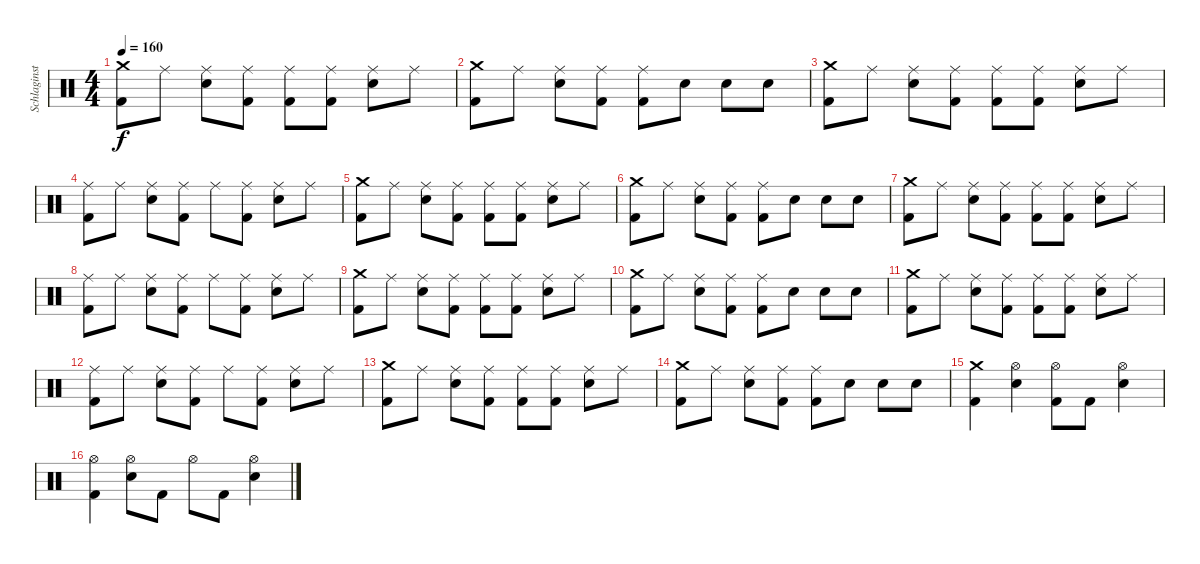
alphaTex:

\track ("Schlaginstrumente - Auswahl" "Schlaginst") {instrument percussion}
\staff {score}
\articulation defaults
\ts (4 4)
\tempo 160
\clef neutral
\ks c
("Crash medium (hit)" "Kick (hit) 2").8{dy f} "Ride (middle)".8 ("Ride (middle)" "Electric Snare (hit)").8 ("Ride (middle)" "Kick (hit) 2").8 ("Ride (middle)" "Kick (hit) 2").8 ("Ride (middle)" "Kick (hit) 2").8 ("Ride (middle)" "Electric Snare (hit)").8 "Ride (middle)".8 |
("Crash medium (hit)" "Kick (hit) 2").8 "Ride (middle)".8 ("Ride (middle)" "Electric Snare (hit)").8 ("Ride (middle)" "Kick (hit) 2").8 ("Ride (middle)" "Kick (hit) 2").8 "Electric Snare (hit)".8 "Electric Snare (hit)".8 "Electric Snare (hit)".8 |
("Crash medium (hit)" "Kick (hit) 2").8 "Ride (middle)".8 ("Ride (middle)" "Electric Snare (hit)").8 ("Ride (middle)" "Kick (hit) 2").8 ("Ride (middle)" "Kick (hit) 2").8 ("Ride (middle)" "Kick (hit) 2").8 ("Ride (middle)" "Electric Snare (hit)").8 "Ride (middle)".8 |
("Ride (middle)" "Kick (hit) 2").8 "Ride (middle)".8 ("Ride (middle)" "Electric Snare (hit)").8 ("Ride (middle)" "Kick (hit) 2").8 "Ride (middle)".8 ("Ride (middle)" "Kick (hit) 2").8 ("Ride (middle)" "Electric Snare (hit)").8 "Ride (middle)".8 |
("Crash medium (hit)" "Kick (hit) 2").8 "Ride (middle)".8 ("Ride (middle)" "Electric Snare (hit)").8 ("Ride (middle)" "Kick (hit) 2").8 ("Ride (middle)" "Kick (hit) 2").8 ("Ride (middle)" "Kick (hit) 2").8 ("Ride (middle)" "Electric Snare (hit)").8 "Ride (middle)".8 |
("Crash medium (hit)" "Kick (hit) 2").8 "Ride (middle)".8 ("Ride (middle)" "Electric Snare (hit)").8 ("Ride (middle)" "Kick (hit) 2").8 ("Ride (middle)" "Kick (hit) 2").8 "Electric Snare (hit)".8 "Electric Snare (hit)".8 "Electric Snare (hit)".8 |
("Crash medium (hit)" "Kick (hit) 2").8 "Ride (middle)".8 ("Ride (middle)" "Electric Snare (hit)").8 ("Ride (middle)" "Kick (hit) 2").8 ("Ride (middle)" "Kick (hit) 2").8 ("Ride (middle)" "Kick (hit) 2").8 ("Ride (middle)" "Electric Snare (hit)").8 "Ride (middle)".8 |
("Ride (middle)" "Kick (hit) 2").8 "Ride (middle)".8 ("Ride (middle)" "Electric Snare (hit)").8 ("Ride (middle)" "Kick (hit) 2").8 "Ride (middle)".8 ("Ride (middle)" "Kick (hit) 2").8 ("Ride (middle)" "Electric Snare (hit)").8 "Ride (middle)".8 |
("Crash medium (hit)" "Kick (hit) 2").8 "Ride (middle)".8 ("Ride (middle)" "Electric Snare (hit)").8 ("Ride (middle)" "Kick (hit) 2").8 ("Ride (middle)" "Kick (hit) 2").8 ("Ride (middle)" "Kick (hit) 2").8 ("Ride (middle)" "Electric Snare (hit)").8 "Ride (middle)".8 |
("Crash medium (hit)" "Kick (hit) 2").8 "Ride (middle)".8 ("Ride (middle)" "Electric Snare (hit)").8 ("Ride (middle)" "Kick (hit) 2").8 ("Ride (middle)" "Kick (hit) 2").8 "Electric Snare (hit)".8 "Electric Snare (hit)".8 "Electric Snare (hit)".8 |
("Crash medium (hit)" "Kick (hit) 2").8 "Ride (middle)".8 ("Ride (middle)" "Electric Snare (hit)").8 ("Ride (middle)" "Kick (hit) 2").8 ("Ride (middle)" "Kick (hit) 2").8 ("Ride (middle)" "Kick (hit) 2").8 ("Ride (middle)" "Electric Snare (hit)").8 "Ride (middle)".8 |
("Ride (middle)" "Kick (hit) 2").8 "Ride (middle)".8 ("Ride (middle)" "Electric Snare (hit)").8 ("Ride (middle)" "Kick (hit) 2").8 "Ride (middle)".8 ("Ride (middle)" "Kick (hit) 2").8 ("Ride (middle)" "Electric Snare (hit)").8 "Ride (middle)".8 |
("Crash medium (hit)" "Kick (hit) 2").8 "Ride (middle)".8 ("Ride (middle)" "Electric Snare (hit)").8 ("Ride (middle)" "Kick (hit) 2").8 ("Ride (middle)" "Kick (hit) 2").8 ("Ride (middle)" "Kick (hit) 2").8 ("Ride (middle)" "Electric Snare (hit)").8 "Ride (middle)".8 |
("Crash medium (hit)" "Kick (hit) 2").8 "Ride (middle)".8 ("Ride (middle)" "Electric Snare (hit)").8 ("Ride (middle)" "Kick (hit) 2").8 ("Ride (middle)" "Kick (hit) 2").8 "Electric Snare (hit)".8 "Electric Snare (hit)".8 "Electric Snare (hit)".8 |
("Crash medium (hit)" "Kick (hit) 2").4 ("Hi-Hat (open)" "Electric Snare (hit)").4 ("Hi-Hat (open)" "Kick (hit) 2").8 "Kick (hit) 2".8 ("Hi-Hat (open)" "Electric Snare (hit)").4 |
("Hi-Hat (open)" "Kick (hit) 2").4 ("Hi-Hat (open)" "Electric Snare (hit)").8 "Kick (hit) 2".8 "Hi-Hat (open)".8 "Kick (hit) 2".8 ("Hi-Hat (open)" "Electric Snare (hit)").4
